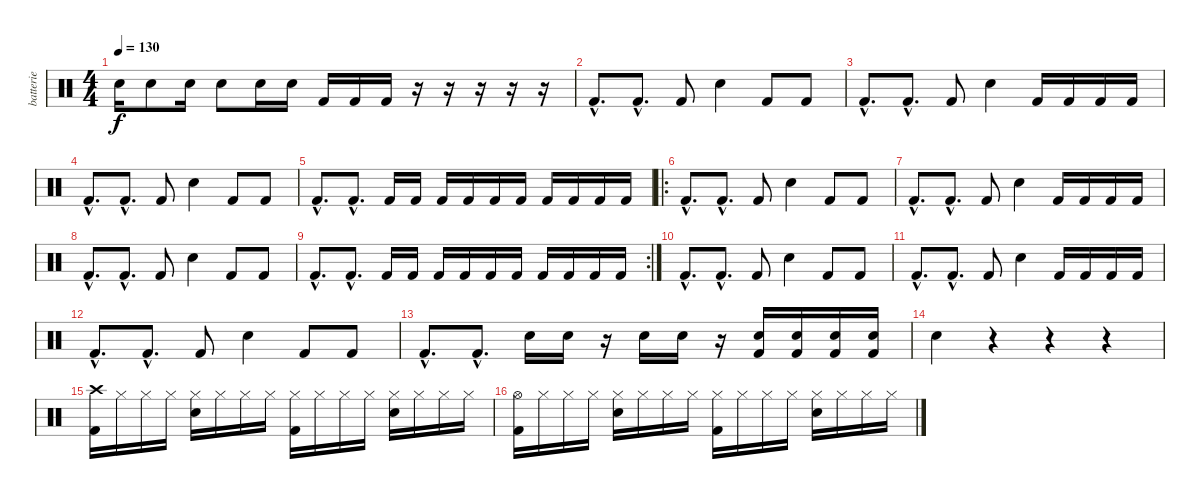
\track ("batterie" "batterie") {instrument percussion}
\staff {score}
\articulation defaults
\ts (4 4)
\tempo 130
\clef neutral
\ks c "Electric Snare (hit)".16{dy f} "Electric Snare (hit)".8 "Electric Snare (hit)".16 "Electric Snare (hit)".8 "Electric Snare (hit)".16 "Electric Snare (hit)".16 "Kick (hit) 2".16 "Kick (hit) 2".16 "Kick (hit) 2".16
r.16 r.16 r.16 r.16 r.16 |
"Kick (hit) 2"{hac}.8{d} "Kick (hit) 2"{hac}.8{d} "Kick (hit) 2".8 "Electric Snare (hit)".4 "Kick (hit) 2".8 "Kick (hit) 2".8 |
"Kick (hit) 2"{hac}.8{d} "Kick (hit) 2"{hac}.8{d} "Kick (hit) 2".8 "Electric Snare (hit)".4 "Kick (hit) 2".16 "Kick (hit) 2".16 "Kick (hit) 2".16 "Kick (hit) 2".16 |
"Kick (hit) 2"{hac}.8{d} "Kick (hit) 2"{hac}.8{d} "Kick (hit) 2".8 "Electric Snare (hit)".4 "Kick (hit) 2".8 "Kick (hit) 2".8 |
"Kick (hit) 2"{hac}.8{d} "Kick (hit) 2"{hac}.8{d} "Kick (hit) 2".16 "Kick (hit) 2".16 "Kick (hit) 2".16 "Kick (hit) 2".16 "Kick (hit) 2".16 "Kick (hit) 2".16 "Kick (hit) 2".16 "Kick (hit) 2".16 "Kick (hit) 2".16 "Kick (hit) 2".16 |
\ro "Kick (hit) 2"{hac}.8{d} "Kick (hit) 2"{hac}.8{d} "Kick (hit) 2".8 "Electric Snare (hit)".4 "Kick (hit) 2".8 "Kick (hit) 2".8
|
"Kick (hit) 2"{hac}.8{d} "Kick (hit) 2"{hac}.8{d} "Kick (hit) 2".8 "Electric Snare (hit)".4 "Kick (hit) 2".16 "Kick (hit) 2".16 "Kick (hit) 2".16 "Kick (hit) 2".16 |
"Kick (hit) 2"{hac}.8{d} "Kick (hit) 2"{hac}.8{d} "Kick (hit) 2".8 "Electric Snare (hit)".4 "Kick (hit) 2".8 "Kick (hit) 2".8 |
\rc 2 "Kick (hit) 2"{hac}.8{d} "Kick (hit) 2"{hac}.8{d} "Kick (hit) 2".16 "Kick (hit) 2".16 "Kick (hit) 2".16 "Kick (hit) 2".16 "Kick (hit) 2".16 "Kick (hit) 2".16 "Kick (hit) 2".16 "Kick (hit) 2".16 "Kick (hit) 2".16 "Kick (hit) 2".16
|
"Kick (hit) 2"{hac}.8{d} "Kick (hit) 2"{hac}.8{d} "Kick (hit) 2".8 "Electric Snare (hit)".4 "Kick (hit) 2".8 "Kick (hit) 2".8 |
"Kick (hit) 2"{hac}.8{d} "Kick (hit) 2"{hac}.8{d} "Kick (hit) 2".8 "Electric Snare (hit)".4 "Kick (hit) 2".16 "Kick (hit) 2".16 "Kick (hit) 2".16 "Kick (hit) 2".16 |
"Kick (hit) 2"{hac}.8{d} "Kick (hit) 2"{hac}.8{d} "Kick (hit) 2".8 "Electric Snare (hit)".4 "Kick (hit) 2".8 "Kick (hit) 2".8 |
"Kick (hit) 2"{hac}.8{d} "Kick (hit) 2"{hac}.8{d} "Electric Snare (hit)".16 "Electric Snare (hit)".16 r.16 "Electric Snare (hit)".16 "Electric Snare (hit)".16 r.16 ("Kick (hit) 2" "Electric Snare (hit)").16 ("Kick (hit) 2" "Electric Snare (hit)").16 ("Kick (hit) 2" "Electric Snare (hit)").16 ("Kick (hit) 2" "Electric Snare (hit)").16 |
"Electric Snare (hit)".4 r.4 r.4 r.4 |
("Crash high (hit)" "Kick (hit) 2").16 "Hi-Hat (closed)".16 "Hi-Hat (closed)".16 "Hi-Hat (closed)".16 ("Hi-Hat (closed)" "Electric Snare (hit)").16 "Hi-Hat (closed)".16 "Hi-Hat (closed)".16 "Hi-Hat (closed)".16 ("Hi-Hat (closed)" "Kick (hit) 2").16 "Hi-Hat (closed)".16 "Hi-Hat (closed)".16 "Hi-Hat (closed)".16 ("Hi-Hat (closed)" "Electric Snare (hit)").16 "Hi-Hat (closed)".16 "Hi-Hat (closed)".16 "Hi-Hat (closed)".16 |
("Hi-Hat (open)" "Kick (hit) 2").16 "Hi-Hat (closed)".16 "Hi-Hat (closed)".16 "Hi-Hat (closed)".16 ("Hi-Hat (closed)" "Electric Snare (hit)").16 "Hi-Hat (closed)".16 "Hi-Hat (closed)".16 "Hi-Hat (closed)".16 ("Hi-Hat (closed)" "Kick (hit) 2").16 "Hi-Hat (closed)".16 "Hi-Hat (closed)".16 "Hi-Hat (closed)".16 ("Hi-Hat (closed)" "Electric Snare (hit)").16 "Hi-Hat (closed)".16 "Hi-Hat (closed)".16 "Hi-Hat (closed)".16
